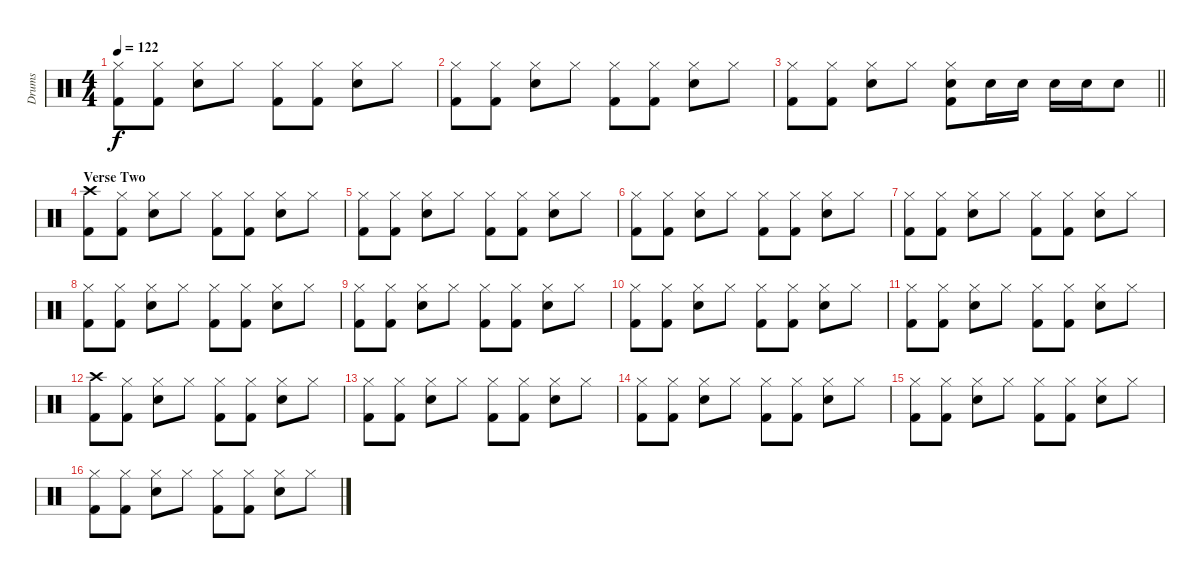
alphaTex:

\track ("Drums" "Drums") {instrument percussion}
\staff {score}
\articulation defaults
\ts (4 4)
\tempo 122
\clef neutral
\ks c
("Hi-Hat (closed)" "Kick (hit) 2").8{dy f} ("Hi-Hat (closed)" "Kick (hit) 2").8 ("Hi-Hat (closed)" "Snare (hit) 2").8 "Hi-Hat (closed)".8 ("Hi-Hat (closed)" "Kick (hit) 2").8 ("Hi-Hat (closed)" "Kick (hit) 2").8 ("Hi-Hat (closed)" "Snare (hit) 2").8 "Hi-Hat (closed)".8 |
("Hi-Hat (closed)" "Kick (hit) 2").8 ("Hi-Hat (closed)" "Kick (hit) 2").8 ("Hi-Hat (closed)" "Snare (hit) 2").8 "Hi-Hat (closed)".8 ("Hi-Hat (closed)" "Kick (hit) 2").8 ("Hi-Hat (closed)" "Kick (hit) 2").8 ("Hi-Hat (closed)" "Snare (hit) 2").8 "Hi-Hat (closed)".8 |
\barLineRight lightlight
("Hi-Hat (closed)" "Kick (hit) 2").8 ("Hi-Hat (closed)" "Kick (hit) 2").8 ("Hi-Hat (closed)" "Snare (hit) 2").8 "Hi-Hat (closed)".8 ("Hi-Hat (closed)" "Snare (hit) 2" "Kick (hit) 2").8 "Snare (hit) 2".16 "Snare (hit) 2".16 "Snare (hit) 2".16 "Snare (hit) 2".16 "Snare (hit) 2".8 |
\section ("" "Verse Two")
("Crash high (hit)" "Kick (hit) 2").8 ("Hi-Hat (closed)" "Kick (hit) 2").8 ("Hi-Hat (closed)" "Snare (hit) 2").8 "Hi-Hat (closed)".8 ("Hi-Hat (closed)" "Kick (hit) 2").8 ("Hi-Hat (closed)" "Kick (hit) 2").8 ("Hi-Hat (closed)" "Snare (hit) 2").8 "Hi-Hat (closed)".8 |
("Hi-Hat (closed)" "Kick (hit) 2").8 ("Hi-Hat (closed)" "Kick (hit) 2").8 ("Hi-Hat (closed)" "Snare (hit) 2").8 "Hi-Hat (closed)".8 ("Hi-Hat (closed)" "Kick (hit) 2").8 ("Hi-Hat (closed)" "Kick (hit) 2").8 ("Hi-Hat (closed)" "Snare (hit) 2").8 "Hi-Hat (closed)".8 |
("Hi-Hat (closed)" "Kick (hit) 2").8 ("Hi-Hat (closed)" "Kick (hit) 2").8 ("Hi-Hat (closed)" "Snare (hit) 2").8 "Hi-Hat (closed)".8 ("Hi-Hat (closed)" "Kick (hit) 2").8 ("Hi-Hat (closed)" "Kick (hit) 2").8 ("Hi-Hat (closed)" "Snare (hit) 2").8 "Hi-Hat (closed)".8 |
("Hi-Hat (closed)" "Kick (hit) 2").8 ("Hi-Hat (closed)" "Kick (hit) 2").8 ("Hi-Hat (closed)" "Snare (hit) 2").8 "Hi-Hat (closed)".8 ("Hi-Hat (closed)" "Kick (hit) 2").8 ("Hi-Hat (closed)" "Kick (hit) 2").8 ("Hi-Hat (closed)" "Snare (hit) 2").8 "Hi-Hat (closed)".8 |
("Hi-Hat (closed)" "Kick (hit) 2").8 ("Hi-Hat (closed)" "Kick (hit) 2").8 ("Hi-Hat (closed)" "Snare (hit) 2").8 "Hi-Hat (closed)".8 ("Hi-Hat (closed)" "Kick (hit) 2").8 ("Hi-Hat (closed)" "Kick (hit) 2").8 ("Hi-Hat (closed)" "Snare (hit) 2").8 "Hi-Hat (closed)".8 |
("Hi-Hat (closed)" "Kick (hit) 2").8 ("Hi-Hat (closed)" "Kick (hit) 2").8 ("Hi-Hat (closed)" "Snare (hit) 2").8 "Hi-Hat (closed)".8 ("Hi-Hat (closed)" "Kick (hit) 2").8 ("Hi-Hat (closed)" "Kick (hit) 2").8 ("Hi-Hat (closed)" "Snare (hit) 2").8 "Hi-Hat (closed)".8 |
("Hi-Hat (closed)" "Kick (hit) 2").8 ("Hi-Hat (closed)" "Kick (hit) 2").8 ("Hi-Hat (closed)" "Snare (hit) 2").8 "Hi-Hat (closed)".8 ("Hi-Hat (closed)" "Kick (hit) 2").8 ("Hi-Hat (closed)" "Kick (hit) 2").8 ("Hi-Hat (closed)" "Snare (hit) 2").8 "Hi-Hat (closed)".8 |
("Hi-Hat (closed)" "Kick (hit) 2").8 ("Hi-Hat (closed)" "Kick (hit) 2").8 ("Hi-Hat (closed)" "Snare (hit) 2").8 "Hi-Hat (closed)".8 ("Hi-Hat (closed)" "Kick (hit) 2").8 ("Hi-Hat (closed)" "Kick (hit) 2").8 ("Hi-Hat (closed)" "Snare (hit) 2").8 "Hi-Hat (closed)".8 |
("Crash high (hit)" "Kick (hit) 2").8 ("Hi-Hat (closed)" "Kick (hit) 2").8 ("Hi-Hat (closed)" "Snare (hit) 2").8 "Hi-Hat (closed)".8 ("Hi-Hat (closed)" "Kick (hit) 2").8 ("Hi-Hat (closed)" "Kick (hit) 2").8 ("Hi-Hat (closed)" "Snare (hit) 2").8 "Hi-Hat (closed)".8 |
("Hi-Hat (closed)" "Kick (hit) 2").8 ("Hi-Hat (closed)" "Kick (hit) 2").8 ("Hi-Hat (closed)" "Snare (hit) 2").8 "Hi-Hat (closed)".8 ("Hi-Hat (closed)" "Kick (hit) 2").8 ("Hi-Hat (closed)" "Kick (hit) 2").8 ("Hi-Hat (closed)" "Snare (hit) 2").8 "Hi-Hat (closed)".8 |
("Hi-Hat (closed)" "Kick (hit) 2").8 ("Hi-Hat (closed)" "Kick (hit) 2").8 ("Hi-Hat (closed)" "Snare (hit) 2").8 "Hi-Hat (closed)".8 ("Hi-Hat (closed)" "Kick (hit) 2").8 ("Hi-Hat (closed)" "Kick (hit) 2").8 ("Hi-Hat (closed)" "Snare (hit) 2").8 "Hi-Hat (closed)".8 |
("Hi-Hat (closed)" "Kick (hit) 2").8 ("Hi-Hat (closed)" "Kick (hit) 2").8 ("Hi-Hat (closed)" "Snare (hit) 2").8 "Hi-Hat (closed)".8 ("Hi-Hat (closed)" "Kick (hit) 2").8 ("Hi-Hat (closed)" "Kick (hit) 2").8 ("Hi-Hat (closed)" "Snare (hit) 2").8 "Hi-Hat (closed)".8 |
("Hi-Hat (closed)" "Kick (hit) 2").8 ("Hi-Hat (closed)" "Kick (hit) 2").8 ("Hi-Hat (closed)" "Snare (hit) 2").8 "Hi-Hat (closed)".8 ("Hi-Hat (closed)" "Kick (hit) 2").8 ("Hi-Hat (closed)" "Kick (hit) 2").8 ("Hi-Hat (closed)" "Snare (hit) 2").8 "Hi-Hat (closed)".8
